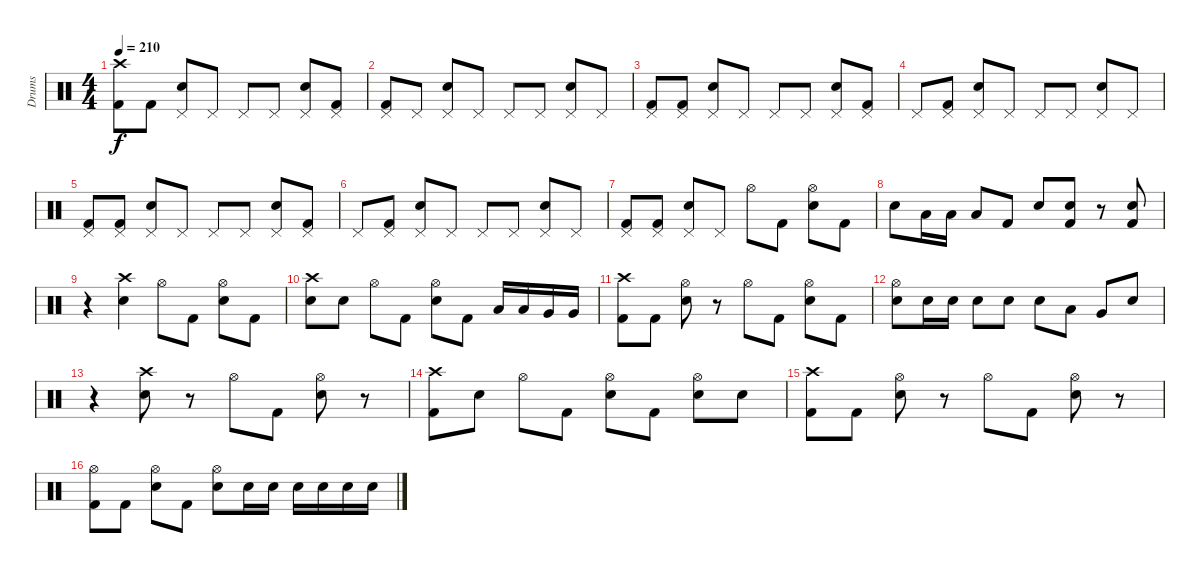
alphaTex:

\track ("Drums" "Drums") {instrument percussion}
\staff {score}
\articulation defaults
\ts (4 4)
\tempo 210
\clef neutral
\ks c
("Crash high (hit)" "Kick (hit) 2").8{dy f} "Kick (hit) 2".8 ("Pedal Hi-Hat (hit)" "Electric Snare (hit)").8 "Pedal Hi-Hat (hit)".8 "Pedal Hi-Hat (hit)".8 "Pedal Hi-Hat (hit)".8 ("Pedal Hi-Hat (hit)" "Electric Snare (hit)").8 ("Pedal Hi-Hat (hit)" "Kick (hit) 2").8 |
("Pedal Hi-Hat (hit)" "Kick (hit) 2").8 "Pedal Hi-Hat (hit)".8 ("Pedal Hi-Hat (hit)" "Electric Snare (hit)").8 "Pedal Hi-Hat (hit)".8 "Pedal Hi-Hat (hit)".8 "Pedal Hi-Hat (hit)".8 ("Pedal Hi-Hat (hit)" "Electric Snare (hit)").8 "Pedal Hi-Hat (hit)".8 |
("Pedal Hi-Hat (hit)" "Kick (hit) 2").8 ("Pedal Hi-Hat (hit)" "Kick (hit) 2").8 ("Pedal Hi-Hat (hit)" "Electric Snare (hit)").8 "Pedal Hi-Hat (hit)".8 "Pedal Hi-Hat (hit)".8 "Pedal Hi-Hat (hit)".8 ("Pedal Hi-Hat (hit)" "Electric Snare (hit)").8 ("Pedal Hi-Hat (hit)" "Kick (hit) 2").8 |
"Pedal Hi-Hat (hit)".8 ("Pedal Hi-Hat (hit)" "Kick (hit) 2").8 ("Pedal Hi-Hat (hit)" "Electric Snare (hit)").8 "Pedal Hi-Hat (hit)".8 "Pedal Hi-Hat (hit)".8 "Pedal Hi-Hat (hit)".8 ("Pedal Hi-Hat (hit)" "Electric Snare (hit)").8 "Pedal Hi-Hat (hit)".8 |
("Pedal Hi-Hat (hit)" "Kick (hit) 2").8 ("Pedal Hi-Hat (hit)" "Kick (hit) 2").8 ("Pedal Hi-Hat (hit)" "Electric Snare (hit)").8 "Pedal Hi-Hat (hit)".8 "Pedal Hi-Hat (hit)".8 "Pedal Hi-Hat (hit)".8 ("Pedal Hi-Hat (hit)" "Electric Snare (hit)").8 ("Pedal Hi-Hat (hit)" "Kick (hit) 2").8 |
"Pedal Hi-Hat (hit)".8 ("Pedal Hi-Hat (hit)" "Kick (hit) 2").8 ("Pedal Hi-Hat (hit)" "Electric Snare (hit)").8 "Pedal Hi-Hat (hit)".8 "Pedal Hi-Hat (hit)".8 "Pedal Hi-Hat (hit)".8 ("Pedal Hi-Hat (hit)" "Electric Snare (hit)").8 "Pedal Hi-Hat (hit)".8 |
("Pedal Hi-Hat (hit)" "Kick (hit) 2").8 ("Pedal Hi-Hat (hit)" "Kick (hit) 2").8 ("Pedal Hi-Hat (hit)" "Electric Snare (hit)").8 "Pedal Hi-Hat (hit)".8 "Hi-Hat (open)".8 "Kick (hit) 2".8 ("Hi-Hat (open)" "Electric Snare (hit)").8 "Kick (hit) 2".8 |
"Electric Snare (hit)".8 "Low Tom (hit)".16 "Low Tom (hit)".16 "Low Tom (hit)".8 "Kick (hit) 2".8 "Electric Snare (hit)".8 ("Snare (hit)"{x} "Kick (hit) 2").8 r.8 ("Snare (hit)"{x} "Kick (hit) 2").8 |
r.4 ("Crash high (hit)" "Electric Snare (hit)").4 "Hi-Hat (open)".8 "Kick (hit) 2".8 ("Hi-Hat (open)" "Electric Snare (hit)").8 "Kick (hit) 2".8 |
("Crash high (hit)" "Electric Snare (hit)").8 "Electric Snare (hit)".8 "Hi-Hat (open)".8 "Kick (hit) 2".8 ("Hi-Hat (open)" "Electric Snare (hit)").8 "Kick (hit) 2".8 "Low Tom (hit)".16 "Low Tom (hit)".16 "Very Low Tom (hit)".16 "Very Low Tom (hit)".16 |
("Crash high (hit)" "Kick (hit) 2").8 "Kick (hit) 2".8 ("Hi-Hat (open)" "Electric Snare (hit)").8 r.8 "Hi-Hat (open)".8 "Kick (hit) 2".8 ("Hi-Hat (open)" "Electric Snare (hit)").8 "Kick (hit) 2".8 |
("Hi-Hat (open)" "Electric Snare (hit)").8 "Electric Snare (hit)".16 "Electric Snare (hit)".16 "Electric Snare (hit)".8 "Electric Snare (hit)".8 "Electric Snare (hit)".8 "Low Tom (hit)".8 "Very Low Tom (hit)".8 "Electric Snare (hit)".8 |
r.4 ("Crash high (hit)" "Electric Snare (hit)").8 r.8 "Hi-Hat (open)".8 "Kick (hit) 2".8 ("Hi-Hat (open)" "Electric Snare (hit)").8 r.8 |
("Crash high (hit)" "Kick (hit) 2").8 "Electric Snare (hit)".8 "Hi-Hat (open)".8 "Kick (hit) 2".8 ("Hi-Hat (open)" "Electric Snare (hit)").8 "Kick (hit) 2".8 ("Hi-Hat (open)" "Electric Snare (hit)").8 "Electric Snare (hit)".8 |
("Crash high (hit)" "Kick (hit) 2").8 "Kick (hit) 2".8 ("Hi-Hat (open)" "Electric Snare (hit)").8 r.8 "Hi-Hat (open)".8 "Kick (hit) 2".8 ("Hi-Hat (open)" "Electric Snare (hit)").8 r.8 |
("Hi-Hat (open)" "Kick (hit) 2").8 "Kick (hit) 2".8 ("Hi-Hat (open)" "Electric Snare (hit)").8 "Kick (hit) 2".8 ("Hi-Hat (open)" "Electric Snare (hit)").8 "Electric Snare (hit)".16 "Electric Snare (hit)".16 "Electric Snare (hit)".16 "Electric Snare (hit)".16 "Electric Snare (hit)".16 "Electric Snare (hit)".16
